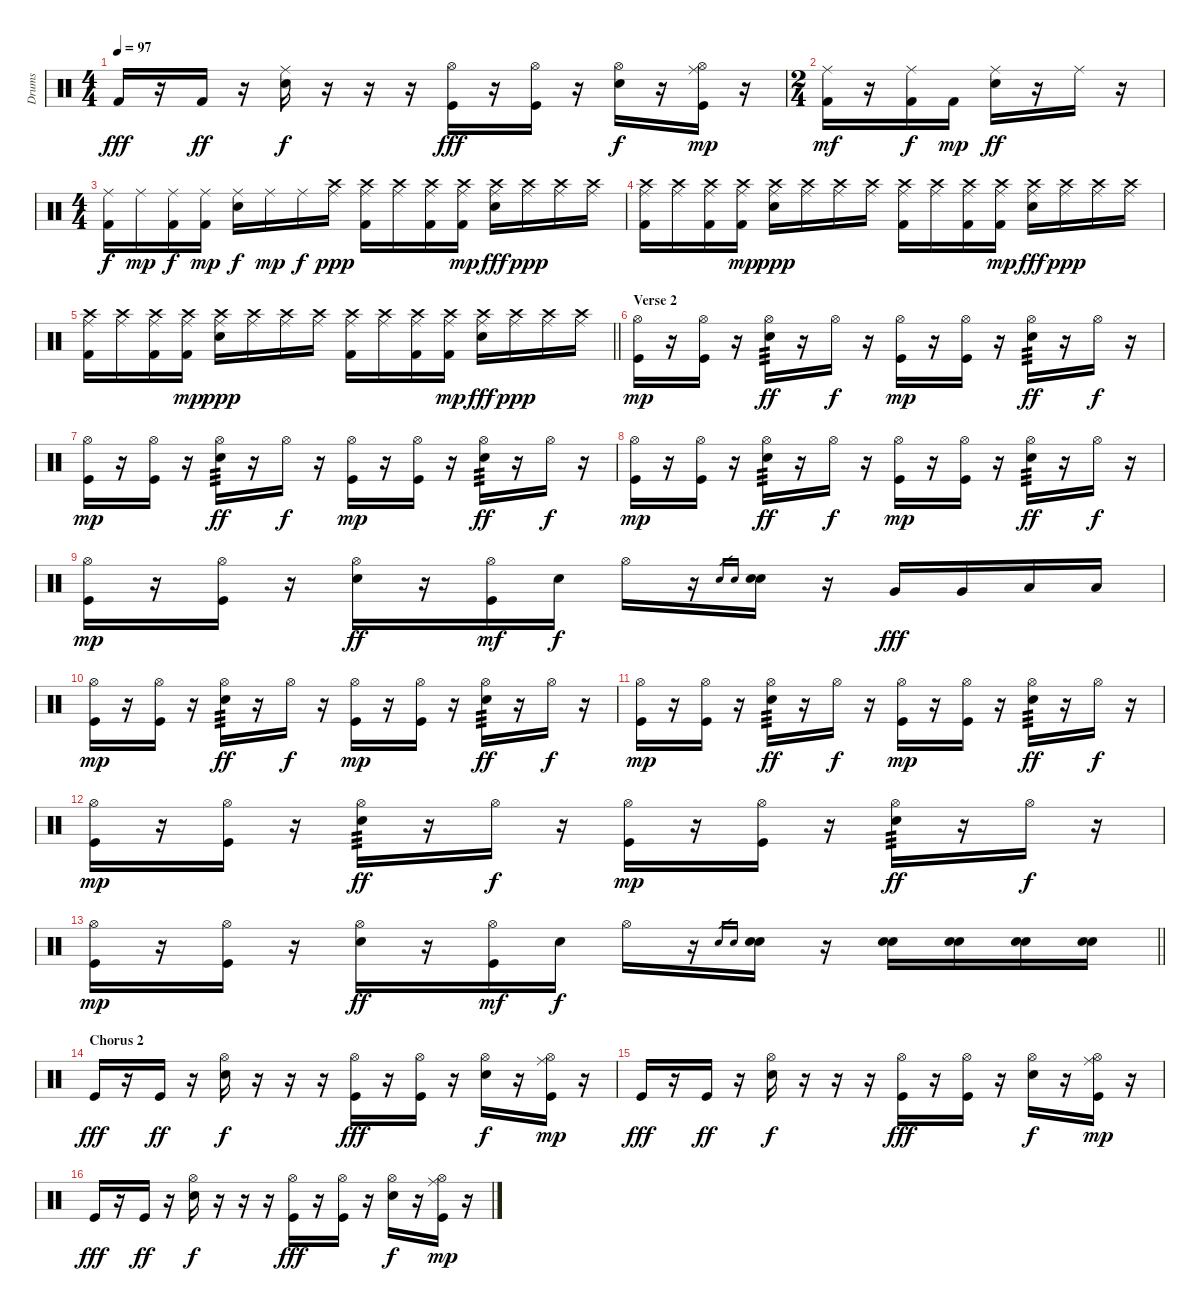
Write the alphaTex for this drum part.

\track ("Drums" "Drums") {instrument percussion}
\staff {score}
\articulation defaults
\ts (4 4)
\tempo 97
\clef neutral
\ks c "Kick (hit) 2".16{dy fff}
r.16 "Kick (hit) 2".16{dy ff} r.16 ("Ride (middle)" "Electric Snare (hit)").16{dy f} r.16 r.16 r.16 ("Hi-Hat (open)" "Kick (hit)").16{dy fff} r.16 ("Hi-Hat (open)" "Kick (hit)").16 r.16 ("Hi-Hat (open)" "Electric Snare (hit)").16{dy f} r.16 ("Ride (middle)" "Hi-Hat (open)" "Kick (hit)").16{dy mp} r.16 |
\ts (2 4)
("Ride (middle)" "Kick (hit) 2").16{dy mf} r.16 ("Ride (middle)" "Kick (hit) 2").16{dy f} "Kick (hit) 2".16{dy mp} ("Ride (middle)" "Electric Snare (hit)").16{dy ff} r.16 "Ride (middle)".16 r.16 |
\ts (4 4)
("Ride (middle)" "Kick (hit) 2").16{dy f} "Ride (middle)".16{dy mp} ("Ride (middle)" "Kick (hit) 2").16{dy f} ("Ride (middle)" "Kick (hit) 2").16{dy mp} ("Ride (middle)" "Electric Snare (hit)").16{dy f} "Ride (middle)".16{dy mp} "Ride (middle)".16{dy f} ("Ride (middle)" "Crash high (hit)").16{dy ppp} ("Ride (middle)" "Crash high (hit)" "Kick (hit) 2").16 ("Ride (middle)" "Crash high (hit)").16 ("Ride (middle)" "Crash high (hit)" "Kick (hit) 2").16 ("Ride (middle)" "Crash high (hit)" "Kick (hit) 2").16{dy mp} ("Ride (middle)" "Crash high (hit)" "Electric Snare (hit)").16{dy fff} ("Ride (middle)" "Crash high (hit)").16{dy ppp} ("Ride (middle)" "Crash high (hit)").16 ("Ride (middle)" "Crash high (hit)").16 |
("Ride (middle)" "Crash high (hit)" "Kick (hit) 2").16 ("Ride (middle)" "Crash high (hit)").16 ("Ride (middle)" "Crash high (hit)" "Kick (hit) 2").16 ("Ride (middle)" "Crash high (hit)" "Kick (hit) 2").16{dy mp} ("Ride (middle)" "Crash high (hit)" "Electric Snare (hit)").16{dy ppp} ("Ride (middle)" "Crash high (hit)").16 ("Ride (middle)" "Crash high (hit)").16 ("Ride (middle)" "Crash high (hit)").16 ("Ride (middle)" "Crash high (hit)" "Kick (hit) 2").16 ("Ride (middle)" "Crash high (hit)").16 ("Ride (middle)" "Crash high (hit)" "Kick (hit) 2").16 ("Ride (middle)" "Crash high (hit)" "Kick (hit) 2").16{dy mp} ("Ride (middle)" "Crash high (hit)" "Electric Snare (hit)").16{dy fff} ("Ride (middle)" "Crash high (hit)").16{dy ppp} ("Ride (middle)" "Crash high (hit)").16 ("Ride (middle)" "Crash high (hit)").16 |
\barLineRight lightlight
("Ride (middle)" "Crash high (hit)" "Kick (hit) 2").16 ("Ride (middle)" "Crash high (hit)").16 ("Ride (middle)" "Crash high (hit)" "Kick (hit) 2").16 ("Ride (middle)" "Crash high (hit)" "Kick (hit) 2").16{dy mp} ("Ride (middle)" "Crash high (hit)" "Electric Snare (hit)").16{dy ppp} ("Ride (middle)" "Crash high (hit)").16 ("Ride (middle)" "Crash high (hit)").16 ("Ride (middle)" "Crash high (hit)").16 ("Ride (middle)" "Crash high (hit)" "Kick (hit) 2").16 ("Ride (middle)" "Crash high (hit)").16 ("Ride (middle)" "Crash high (hit)" "Kick (hit) 2").16 ("Ride (middle)" "Crash high (hit)" "Kick (hit) 2").16{dy mp} ("Ride (middle)" "Crash high (hit)" "Electric Snare (hit)").16{dy fff} ("Ride (middle)" "Crash high (hit)").16{dy ppp} ("Ride (middle)" "Crash high (hit)").16 ("Ride (middle)" "Crash high (hit)").16 |
\section ("" "Verse 2")
("Hi-Hat (open)" "Kick (hit)").16{dy mp} r.16 ("Hi-Hat (open)" "Kick (hit)").16 r.16 ("Hi-Hat (open)" "Electric Snare (hit)").16{tp 3 dy ff} r.16 "Hi-Hat (open)".16{dy f} r.16 ("Hi-Hat (open)" "Kick (hit)").16{dy mp} r.16 ("Hi-Hat (open)" "Kick (hit)").16 r.16 ("Hi-Hat (open)" "Electric Snare (hit)").16{tp 3 dy ff} r.16 "Hi-Hat (open)".16{dy f} r.16 |
("Hi-Hat (open)" "Kick (hit)").16{dy mp} r.16 ("Hi-Hat (open)" "Kick (hit)").16 r.16 ("Hi-Hat (open)" "Electric Snare (hit)").16{tp 3 dy ff} r.16 "Hi-Hat (open)".16{dy f} r.16 ("Hi-Hat (open)" "Kick (hit)").16{dy mp} r.16 ("Hi-Hat (open)" "Kick (hit)").16 r.16 ("Hi-Hat (open)" "Electric Snare (hit)").16{tp 3 dy ff} r.16 "Hi-Hat (open)".16{dy f} r.16 |
("Hi-Hat (open)" "Kick (hit)").16{dy mp} r.16 ("Hi-Hat (open)" "Kick (hit)").16 r.16 ("Hi-Hat (open)" "Electric Snare (hit)").16{tp 3 dy ff} r.16 "Hi-Hat (open)".16{dy f} r.16 ("Hi-Hat (open)" "Kick (hit)").16{dy mp} r.16 ("Hi-Hat (open)" "Kick (hit)").16 r.16 ("Hi-Hat (open)" "Electric Snare (hit)").16{tp 3 dy ff} r.16 "Hi-Hat (open)".16{dy f} r.16 |
("Hi-Hat (open)" "Kick (hit)").16{dy mp} r.16 ("Hi-Hat (open)" "Kick (hit)").16 r.16 ("Hi-Hat (open)" "Electric Snare (hit)").16{dy ff} r.16 ("Hi-Hat (open)" "Kick (hit)").16{dy mf} "Electric Snare (hit)".16{dy f} "Hi-Hat (open)".16 r.16 "Electric Snare (hit)".16{gr} "Electric Snare (hit)".16{gr} ("Electric Snare (hit)" "Electric Snare (hit)").16 r.16 "Very Low Tom (hit)".16{dy fff} "Very Low Tom (hit)".16 "Low Tom (hit)".16 "Low Tom (hit)".16 |
("Hi-Hat (open)" "Kick (hit)").16{dy mp} r.16 ("Hi-Hat (open)" "Kick (hit)").16 r.16 ("Hi-Hat (open)" "Electric Snare (hit)").16{tp 3 dy ff} r.16 "Hi-Hat (open)".16{dy f} r.16 ("Hi-Hat (open)" "Kick (hit)").16{dy mp} r.16 ("Hi-Hat (open)" "Kick (hit)").16 r.16 ("Hi-Hat (open)" "Electric Snare (hit)").16{tp 3 dy ff} r.16 "Hi-Hat (open)".16{dy f} r.16 |
("Hi-Hat (open)" "Kick (hit)").16{dy mp} r.16 ("Hi-Hat (open)" "Kick (hit)").16 r.16 ("Hi-Hat (open)" "Electric Snare (hit)").16{tp 3 dy ff} r.16 "Hi-Hat (open)".16{dy f} r.16 ("Hi-Hat (open)" "Kick (hit)").16{dy mp} r.16 ("Hi-Hat (open)" "Kick (hit)").16 r.16 ("Hi-Hat (open)" "Electric Snare (hit)").16{tp 3 dy ff} r.16 "Hi-Hat (open)".16{dy f} r.16 |
("Hi-Hat (open)" "Kick (hit)").16{dy mp} r.16 ("Hi-Hat (open)" "Kick (hit)").16 r.16 ("Hi-Hat (open)" "Electric Snare (hit)").16{tp 3 dy ff} r.16 "Hi-Hat (open)".16{dy f} r.16 ("Hi-Hat (open)" "Kick (hit)").16{dy mp} r.16 ("Hi-Hat (open)" "Kick (hit)").16 r.16 ("Hi-Hat (open)" "Electric Snare (hit)").16{tp 3 dy ff} r.16 "Hi-Hat (open)".16{dy f} r.16 |
\barLineRight lightlight
("Hi-Hat (open)" "Kick (hit)").16{dy mp} r.16 ("Hi-Hat (open)" "Kick (hit)").16 r.16 ("Hi-Hat (open)" "Electric Snare (hit)").16{dy ff} r.16 ("Hi-Hat (open)" "Kick (hit)").16{dy mf} "Electric Snare (hit)".16{dy f} "Hi-Hat (open)".16 r.16 "Electric Snare (hit)".16{gr} "Electric Snare (hit)".16{gr} ("Electric Snare (hit)" "Electric Snare (hit)").16 r.16 ("Electric Snare (hit)" "Electric Snare (hit)").16 ("Electric Snare (hit)" "Electric Snare (hit)").16 ("Electric Snare (hit)" "Electric Snare (hit)").16 ("Electric Snare (hit)" "Electric Snare (hit)").16 |
\section ("" "Chorus 2")
"Kick (hit)".16{dy fff} r.16 "Kick (hit)".16{dy ff} r.16 ("Hi-Hat (open)" "Electric Snare (hit)").16{dy f} r.16 r.16 r.16 ("Hi-Hat (open)" "Kick (hit)").16{dy fff} r.16 ("Hi-Hat (open)" "Kick (hit)").16 r.16 ("Hi-Hat (open)" "Electric Snare (hit)").16{dy f} r.16 ("Ride (middle)" "Hi-Hat (open)" "Kick (hit)").16{dy mp} r.16 |
"Kick (hit)".16{dy fff} r.16 "Kick (hit)".16{dy ff} r.16 ("Hi-Hat (open)" "Electric Snare (hit)").16{dy f} r.16 r.16 r.16 ("Hi-Hat (open)" "Kick (hit)").16{dy fff} r.16 ("Hi-Hat (open)" "Kick (hit)").16 r.16 ("Hi-Hat (open)" "Electric Snare (hit)").16{dy f} r.16 ("Ride (middle)" "Hi-Hat (open)" "Kick (hit)").16{dy mp} r.16 |
"Kick (hit)".16{dy fff} r.16 "Kick (hit)".16{dy ff} r.16 ("Hi-Hat (open)" "Electric Snare (hit)").16{dy f} r.16 r.16 r.16 ("Hi-Hat (open)" "Kick (hit)").16{dy fff} r.16 ("Hi-Hat (open)" "Kick (hit)").16 r.16 ("Hi-Hat (open)" "Electric Snare (hit)").16{dy f} r.16 ("Ride (middle)" "Hi-Hat (open)" "Kick (hit)").16{dy mp} r.16
